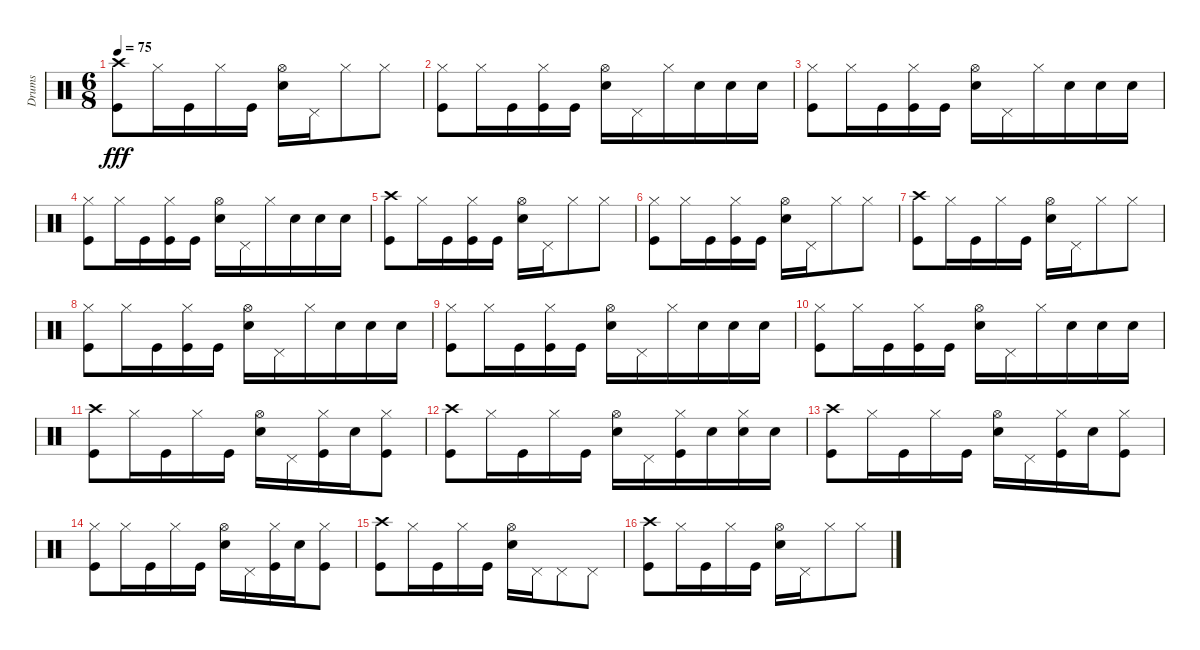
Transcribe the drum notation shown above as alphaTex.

\track ("Drums" "Drums") {instrument percussion}
\staff {score}
\articulation defaults
\ts (6 8)
\tempo 75
\clef neutral
\ks c
("Crash high (hit)" "Kick (hit)").8{dy fff} "Hi-Hat (closed)".16 "Kick (hit)".16 "Hi-Hat (closed)".16 "Kick (hit)".16 ("Hi-Hat (open)" "Snare (hit) 2").16 "Pedal Hi-Hat (hit)".16 "Hi-Hat (closed)".8 "Hi-Hat (closed)".8 |
("Hi-Hat (closed)" "Kick (hit)").8 "Hi-Hat (closed)".16 "Kick (hit)".16 ("Hi-Hat (closed)" "Kick (hit)").16 "Kick (hit)".16 ("Hi-Hat (open)" "Snare (hit) 2").16 "Pedal Hi-Hat (hit)".16 "Hi-Hat (closed)".16 "Snare (hit) 2".16 "Snare (hit) 2".16 "Snare (hit) 2".16 |
("Hi-Hat (closed)" "Kick (hit)").8 "Hi-Hat (closed)".16 "Kick (hit)".16 ("Hi-Hat (closed)" "Kick (hit)").16 "Kick (hit)".16 ("Hi-Hat (open)" "Snare (hit) 2").16 "Pedal Hi-Hat (hit)".16 "Hi-Hat (closed)".16 "Snare (hit) 2".16 "Snare (hit) 2".16 "Snare (hit) 2".16 |
("Hi-Hat (closed)" "Kick (hit)").8 "Hi-Hat (closed)".16 "Kick (hit)".16 ("Hi-Hat (closed)" "Kick (hit)").16 "Kick (hit)".16 ("Hi-Hat (open)" "Snare (hit) 2").16 "Pedal Hi-Hat (hit)".16 "Hi-Hat (closed)".16 "Snare (hit) 2".16 "Snare (hit) 2".16 "Snare (hit) 2".16 |
("Crash high (hit)" "Kick (hit)").8 "Hi-Hat (closed)".16 "Kick (hit)".16 ("Hi-Hat (closed)" "Kick (hit)").16 "Kick (hit)".16 ("Hi-Hat (open)" "Snare (hit) 2").16 "Pedal Hi-Hat (hit)".16 "Hi-Hat (closed)".8 "Hi-Hat (closed)".8 |
("Hi-Hat (closed)" "Kick (hit)").8 "Hi-Hat (closed)".16 "Kick (hit)".16 ("Hi-Hat (closed)" "Kick (hit)").16 "Kick (hit)".16 ("Hi-Hat (open)" "Snare (hit) 2").16 "Pedal Hi-Hat (hit)".16 "Hi-Hat (closed)".8 "Hi-Hat (closed)".8 |
("Crash high (hit)" "Kick (hit)").8 "Hi-Hat (closed)".16 "Kick (hit)".16 "Hi-Hat (closed)".16 "Kick (hit)".16 ("Hi-Hat (open)" "Snare (hit) 2").16 "Pedal Hi-Hat (hit)".16 "Hi-Hat (closed)".8 "Hi-Hat (closed)".8 |
("Hi-Hat (closed)" "Kick (hit)").8 "Hi-Hat (closed)".16 "Kick (hit)".16 ("Hi-Hat (closed)" "Kick (hit)").16 "Kick (hit)".16 ("Hi-Hat (open)" "Snare (hit) 2").16 "Pedal Hi-Hat (hit)".16 "Hi-Hat (closed)".16 "Snare (hit) 2".16 "Snare (hit) 2".16 "Snare (hit) 2".16 |
("Hi-Hat (closed)" "Kick (hit)").8 "Hi-Hat (closed)".16 "Kick (hit)".16 ("Hi-Hat (closed)" "Kick (hit)").16 "Kick (hit)".16 ("Hi-Hat (open)" "Snare (hit) 2").16 "Pedal Hi-Hat (hit)".16 "Hi-Hat (closed)".16 "Snare (hit) 2".16 "Snare (hit) 2".16 "Snare (hit) 2".16 |
("Hi-Hat (closed)" "Kick (hit)").8 "Hi-Hat (closed)".16 "Kick (hit)".16 ("Hi-Hat (closed)" "Kick (hit)").16 "Kick (hit)".16 ("Hi-Hat (open)" "Snare (hit) 2").16 "Pedal Hi-Hat (hit)".16 "Hi-Hat (closed)".16 "Snare (hit) 2".16 "Snare (hit) 2".16 "Snare (hit) 2".16 |
("Crash high (hit)" "Kick (hit)").8 "Hi-Hat (closed)".16 "Kick (hit)".16 "Hi-Hat (closed)".16 "Kick (hit)".16 ("Hi-Hat (open)" "Snare (hit) 2").16 "Pedal Hi-Hat (hit)".16 ("Hi-Hat (closed)" "Kick (hit)").16 "Snare (hit) 2".16 ("Hi-Hat (closed)" "Kick (hit)").8 |
("Crash high (hit)" "Kick (hit)").8 "Hi-Hat (closed)".16 "Kick (hit)".16 "Hi-Hat (closed)".16 "Kick (hit)".16 ("Hi-Hat (open)" "Snare (hit) 2").16 "Pedal Hi-Hat (hit)".16 ("Hi-Hat (closed)" "Kick (hit)").16 "Snare (hit) 2".16 ("Hi-Hat (closed)" "Snare (hit) 2").16 "Snare (hit) 2".16 |
("Crash high (hit)" "Kick (hit)").8 "Hi-Hat (closed)".16 "Kick (hit)".16 "Hi-Hat (closed)".16 "Kick (hit)".16 ("Hi-Hat (open)" "Snare (hit) 2").16 "Pedal Hi-Hat (hit)".16 ("Hi-Hat (closed)" "Kick (hit)").16 "Snare (hit) 2".16 ("Hi-Hat (closed)" "Kick (hit)").8 |
("Hi-Hat (closed)" "Kick (hit)").8 "Hi-Hat (closed)".16 "Kick (hit)".16 "Hi-Hat (closed)".16 "Kick (hit)".16 ("Hi-Hat (open)" "Snare (hit) 2").16 "Pedal Hi-Hat (hit)".16 ("Hi-Hat (closed)" "Kick (hit)").16 "Snare (hit) 2".16 ("Hi-Hat (closed)" "Kick (hit)").8 |
("Crash high (hit)" "Kick (hit)").8 "Hi-Hat (closed)".16 "Kick (hit)".16 "Hi-Hat (closed)".16 "Kick (hit)".16 ("Hi-Hat (open)" "Snare (hit) 2").16 "Pedal Hi-Hat (hit)".16 "Pedal Hi-Hat (hit)".8 "Pedal Hi-Hat (hit)".8 |
("Crash high (hit)" "Kick (hit)").8 "Hi-Hat (closed)".16 "Kick (hit)".16 "Hi-Hat (closed)".16 "Kick (hit)".16 ("Hi-Hat (open)" "Snare (hit) 2").16 "Pedal Hi-Hat (hit)".16 "Hi-Hat (closed)".8 "Hi-Hat (closed)".8
